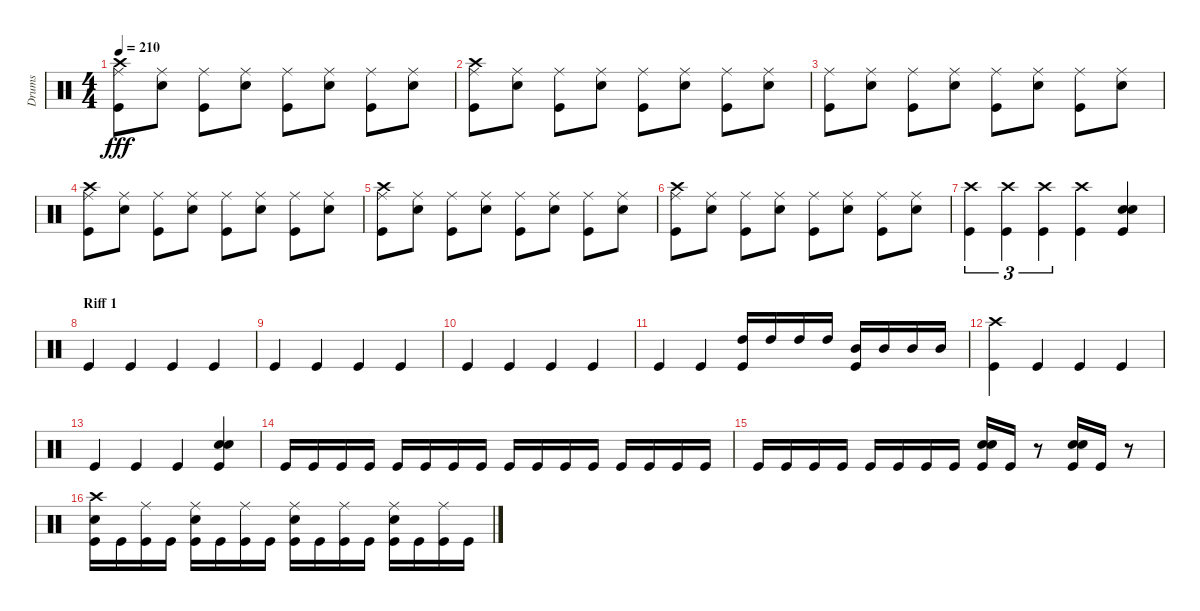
\track ("Drums" "Drums") {instrument percussion}
\staff {score}
\articulation defaults
\ts (4 4)
\tempo 210
\clef neutral
\ks c
("Ride (middle)" "Crash high (hit)" "Kick (hit)").8{dy fff} ("Ride (middle)" "Snare (hit) 2").8 ("Ride (middle)" "Kick (hit)").8 ("Ride (middle)" "Snare (hit) 2").8 ("Ride (middle)" "Kick (hit)").8 ("Ride (middle)" "Snare (hit) 2").8 ("Ride (middle)" "Kick (hit)").8 ("Ride (middle)" "Snare (hit) 2").8 |
("Ride (middle)" "Crash high (hit)" "Kick (hit)").8 ("Ride (middle)" "Snare (hit) 2").8 ("Ride (middle)" "Kick (hit)").8 ("Ride (middle)" "Snare (hit) 2").8 ("Ride (middle)" "Kick (hit)").8 ("Ride (middle)" "Snare (hit) 2").8 ("Ride (middle)" "Kick (hit)").8 ("Ride (middle)" "Snare (hit) 2").8 |
("Ride (middle)" "Kick (hit)").8 ("Ride (middle)" "Snare (hit) 2").8 ("Ride (middle)" "Kick (hit)").8 ("Ride (middle)" "Snare (hit) 2").8 ("Ride (middle)" "Kick (hit)").8 ("Ride (middle)" "Snare (hit) 2").8 ("Ride (middle)" "Kick (hit)").8 ("Ride (middle)" "Snare (hit) 2").8 |
("Ride (middle)" "Crash high (hit)" "Kick (hit)").8 ("Ride (middle)" "Snare (hit) 2").8 ("Ride (middle)" "Kick (hit)").8 ("Ride (middle)" "Snare (hit) 2").8 ("Ride (middle)" "Kick (hit)").8 ("Ride (middle)" "Snare (hit) 2").8 ("Ride (middle)" "Kick (hit)").8 ("Ride (middle)" "Snare (hit) 2").8 |
("Ride (middle)" "Crash high (hit)" "Kick (hit)").8 ("Ride (middle)" "Snare (hit) 2").8 ("Ride (middle)" "Kick (hit)").8 ("Ride (middle)" "Snare (hit) 2").8 ("Ride (middle)" "Kick (hit)").8 ("Ride (middle)" "Snare (hit) 2").8 ("Ride (middle)" "Kick (hit)").8 ("Ride (middle)" "Snare (hit) 2").8 |
("Ride (middle)" "Crash high (hit)" "Kick (hit)").8 ("Ride (middle)" "Snare (hit) 2").8 ("Ride (middle)" "Kick (hit)").8 ("Ride (middle)" "Snare (hit) 2").8 ("Ride (middle)" "Kick (hit)").8 ("Ride (middle)" "Snare (hit) 2").8 ("Ride (middle)" "Kick (hit)").8 ("Ride (middle)" "Snare (hit) 2").8 |
("Crash high (hit)" "Kick (hit)").4{tu (3 2)} ("Crash high (hit)" "Kick (hit)").4{tu (3 2)} ("Crash high (hit)" "Kick (hit)").4{tu (3 2)} ("Crash high (hit)" "Kick (hit)").4 ("Snare (hit) 2" "Snare (hit) 2" "Kick (hit)").4 |
\section ("" "Riff 1")
"Kick (hit)".4 "Kick (hit)".4 "Kick (hit)".4 "Kick (hit)".4 |
"Kick (hit)".4 "Kick (hit)".4 "Kick (hit)".4 "Kick (hit)".4 |
"Kick (hit)".4 "Kick (hit)".4 "Kick (hit)".4 "Kick (hit)".4 |
"Kick (hit)".4 "Kick (hit)".4 ("High Tom (hit)" "Kick (hit)").16 "High Tom (hit)".16 "High Tom (hit)".16 "High Tom (hit)".16 ("Mid Tom (hit)" "Kick (hit)").16 "Mid Tom (hit)".16 "Mid Tom (hit)".16 "Mid Tom (hit)".16 |
("Crash high (hit)" "Kick (hit)").4 "Kick (hit)".4 "Kick (hit)".4 "Kick (hit)".4 |
"Kick (hit)".4 "Kick (hit)".4 "Kick (hit)".4 ("Snare (hit) 2" "Snare (hit) 2" "Kick (hit)").4 |
"Kick (hit)".16 "Kick (hit)".16 "Kick (hit)".16 "Kick (hit)".16 "Kick (hit)".16 "Kick (hit)".16 "Kick (hit)".16 "Kick (hit)".16 "Kick (hit)".16 "Kick (hit)".16 "Kick (hit)".16 "Kick (hit)".16 "Kick (hit)".16 "Kick (hit)".16 "Kick (hit)".16 "Kick (hit)".16 |
"Kick (hit)".16 "Kick (hit)".16 "Kick (hit)".16 "Kick (hit)".16 "Kick (hit)".16 "Kick (hit)".16 "Kick (hit)".16 "Kick (hit)".16 ("Snare (hit) 2" "Snare (hit) 2" "Kick (hit)").16 "Kick (hit)".16 r.8 ("Snare (hit) 2" "Snare (hit) 2" "Kick (hit)").16 "Kick (hit)".16 r.8 |
("Snare (hit) 2" "Crash high (hit)" "Kick (hit)").16 "Kick (hit)".16 ("Ride (middle)" "Kick (hit)").16 "Kick (hit)".16 ("Ride (middle)" "Snare (hit) 2" "Kick (hit)").16 "Kick (hit)".16 ("Ride (middle)" "Kick (hit)").16 "Kick (hit)".16 ("Ride (middle)" "Snare (hit) 2" "Kick (hit)").16 "Kick (hit)".16 ("Ride (middle)" "Kick (hit)").16 "Kick (hit)".16 ("Ride (middle)" "Snare (hit) 2" "Kick (hit)").16 "Kick (hit)".16 ("Ride (middle)" "Kick (hit)").16 "Kick (hit)".16
